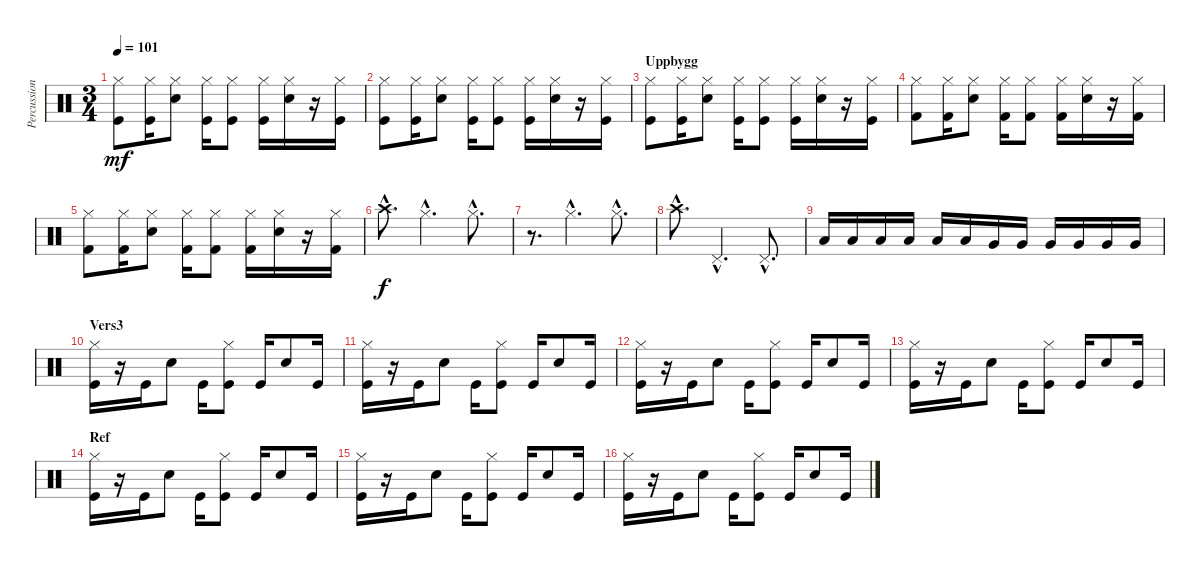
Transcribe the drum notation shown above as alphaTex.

\track ("Percussion" "Percussion") {instrument percussion}
\staff {score}
\articulation defaults
\ts (3 4)
\tempo 101
\clef neutral
\ks c
("Hi-Hat (closed)" "Kick (hit)").8{dy mf} ("Hi-Hat (closed)" "Kick (hit)").16 ("Hi-Hat (closed)" "Snare (hit) 2").8 ("Hi-Hat (closed)" "Kick (hit)").16 ("Hi-Hat (closed)" "Kick (hit)").8 ("Hi-Hat (closed)" "Kick (hit)").16 ("Hi-Hat (closed)" "Snare (hit) 2").16 r.16 ("Hi-Hat (closed)" "Kick (hit)").16 |
("Hi-Hat (closed)" "Kick (hit)").8 ("Hi-Hat (closed)" "Kick (hit)").16 ("Hi-Hat (closed)" "Snare (hit) 2").8 ("Hi-Hat (closed)" "Kick (hit)").16 ("Hi-Hat (closed)" "Kick (hit)").8 ("Hi-Hat (closed)" "Kick (hit)").16 ("Hi-Hat (closed)" "Snare (hit) 2").16 r.16 ("Hi-Hat (closed)" "Kick (hit)").16 |
\section ("" "Uppbygg")
("Hi-Hat (closed)" "Kick (hit)").8 ("Hi-Hat (closed)" "Kick (hit)").16 ("Hi-Hat (closed)" "Snare (hit) 2").8 ("Hi-Hat (closed)" "Kick (hit)").16 ("Hi-Hat (closed)" "Kick (hit)").8 ("Hi-Hat (closed)" "Kick (hit)").16 ("Hi-Hat (closed)" "Snare (hit) 2").16 r.16 ("Hi-Hat (closed)" "Kick (hit)").16 |
("Hi-Hat (closed)" "Kick (hit) 2").8 ("Hi-Hat (closed)" "Kick (hit) 2").16 ("Hi-Hat (closed)" "Snare (hit) 2").8 ("Hi-Hat (closed)" "Kick (hit) 2").16 ("Hi-Hat (closed)" "Kick (hit) 2").8 ("Hi-Hat (closed)" "Kick (hit) 2").16 ("Hi-Hat (closed)" "Snare (hit) 2").16 r.16 ("Hi-Hat (closed)" "Kick (hit) 2").16 |
("Hi-Hat (closed)" "Kick (hit) 2").8 ("Hi-Hat (closed)" "Kick (hit) 2").16 ("Hi-Hat (closed)" "Snare (hit) 2").8 ("Hi-Hat (closed)" "Kick (hit) 2").16 ("Hi-Hat (closed)" "Kick (hit) 2").8 ("Hi-Hat (closed)" "Kick (hit) 2").16 ("Hi-Hat (closed)" "Snare (hit) 2").16 r.16 ("Hi-Hat (closed)" "Kick (hit) 2").16 |
"Crash high (hit)"{hac}.8{d dy f} "Hi-Hat (closed)"{hac}.4{d} "Hi-Hat (closed)"{hac}.8{d} |
r.8{d} "Hi-Hat (closed)"{hac}.4{d} "Hi-Hat (closed)"{hac}.8{d} |
"Crash high (hit)"{hac}.8{d} "Pedal Hi-Hat (hit)"{hac}.4{d} "Pedal Hi-Hat (hit)"{hac}.8{d} |
"Low Tom (hit)".16 "Low Tom (hit)".16 "Low Tom (hit)".16 "Low Tom (hit)".16 "Low Tom (hit)".16 "Low Tom (hit)".16 "Very Low Tom (hit)".16 "Very Low Tom (hit)".16 "Very Low Tom (hit)".16 "Very Low Tom (hit)".16 "Very Low Tom (hit)".16 "Very Low Tom (hit)".16 |
\section ("" "Vers3")
("Hi-Hat (closed)" "Kick (hit)").16 r.16 "Kick (hit)".16 "Electric Snare (hit)".8 "Kick (hit)".16 ("Hi-Hat (closed)" "Kick (hit)").8 "Kick (hit)".16 "Electric Snare (hit)".8 "Kick (hit)".16 |
("Hi-Hat (closed)" "Kick (hit)").16 r.16 "Kick (hit)".16 "Electric Snare (hit)".8 "Kick (hit)".16 ("Hi-Hat (closed)" "Kick (hit)").8 "Kick (hit)".16 "Electric Snare (hit)".8 "Kick (hit)".16 |
("Hi-Hat (closed)" "Kick (hit)").16 r.16 "Kick (hit)".16 "Electric Snare (hit)".8 "Kick (hit)".16 ("Hi-Hat (closed)" "Kick (hit)").8 "Kick (hit)".16 "Electric Snare (hit)".8 "Kick (hit)".16 |
("Hi-Hat (closed)" "Kick (hit)").16 r.16 "Kick (hit)".16 "Electric Snare (hit)".8 "Kick (hit)".16 ("Hi-Hat (closed)" "Kick (hit)").8 "Kick (hit)".16 "Electric Snare (hit)".8 "Kick (hit)".16 |
\section ("" "Ref")
("Hi-Hat (closed)" "Kick (hit)").16 r.16 "Kick (hit)".16 "Electric Snare (hit)".8 "Kick (hit)".16 ("Hi-Hat (closed)" "Kick (hit)").8 "Kick (hit)".16 "Electric Snare (hit)".8 "Kick (hit)".16 |
("Hi-Hat (closed)" "Kick (hit)").16 r.16 "Kick (hit)".16 "Electric Snare (hit)".8 "Kick (hit)".16 ("Hi-Hat (closed)" "Kick (hit)").8 "Kick (hit)".16 "Electric Snare (hit)".8 "Kick (hit)".16 |
("Hi-Hat (closed)" "Kick (hit)").16 r.16 "Kick (hit)".16 "Electric Snare (hit)".8 "Kick (hit)".16 ("Hi-Hat (closed)" "Kick (hit)").8 "Kick (hit)".16 "Electric Snare (hit)".8 "Kick (hit)".16
